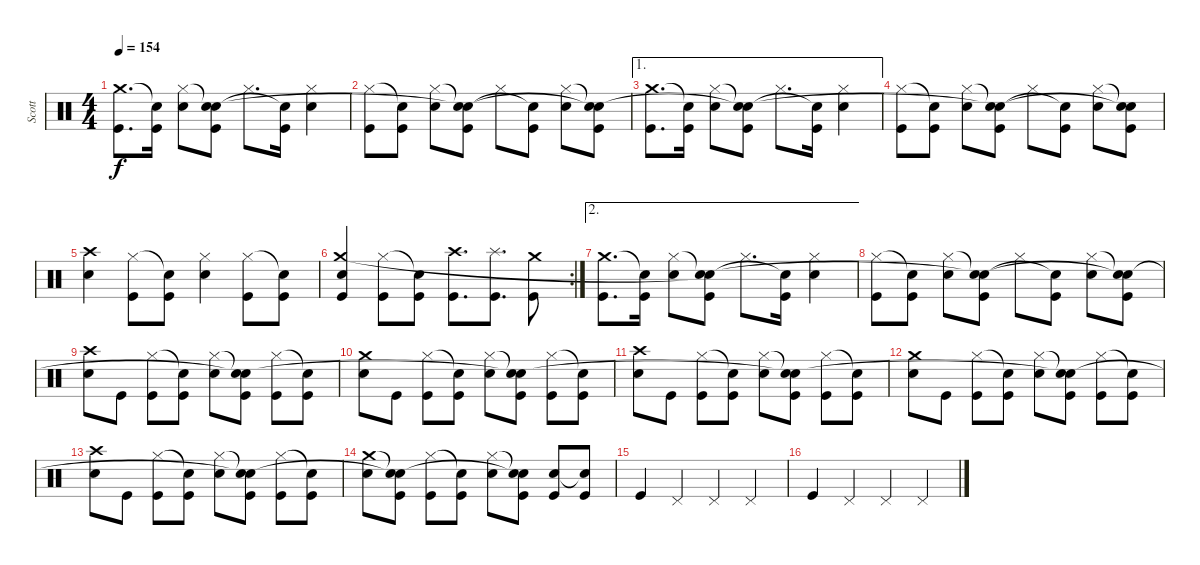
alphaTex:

\track ("Scott" "Scott") {instrument percussion}
\staff {score}
\articulation defaults
\ts (4 4)
\tempo 154
\clef neutral
\ks c
("Kick (hit)" "Crash medium (hit)").8{d dy f} ("Kick (hit)" "Snare (hit)"{t}).16 ("Snare (hit) 2" "Hi-Hat (closed)").8 ("Kick (hit)" "Snare (hit)"{t} "Snare (hit)"{t}).8 "Hi-Hat (closed)".8{d} ("Kick (hit)" "Snare (hit)"{t}).16 ("Snare (hit) 2" "Hi-Hat (closed)").4 |
("Kick (hit)" "Hi-Hat (closed)").8 ("Kick (hit)" "Snare (hit)"{t}).8 ("Snare (hit) 2" "Hi-Hat (closed)").8 ("Kick (hit)" "Snare (hit)"{t} "Snare (hit)"{t}).8 "Hi-Hat (closed)".8 ("Kick (hit)" "Snare (hit)"{t}).8 ("Snare (hit) 2" "Hi-Hat (closed)").8 ("Kick (hit)" "Snare (hit)"{t} "Snare (hit)"{t}).8 |
\ae 1
("Kick (hit)" "Crash medium (hit)").8{d} ("Kick (hit)" "Snare (hit)"{t}).16 ("Snare (hit) 2" "Hi-Hat (closed)").8 ("Kick (hit)" "Snare (hit)"{t} "Snare (hit)"{t}).8 "Hi-Hat (closed)".8{d} ("Kick (hit)" "Snare (hit)"{t}).16 ("Snare (hit) 2" "Hi-Hat (closed)").4 |
("Kick (hit)" "Hi-Hat (closed)").8 ("Kick (hit)" "Snare (hit)"{t}).8 ("Snare (hit) 2" "Hi-Hat (closed)").8 ("Kick (hit)" "Snare (hit)"{t} "Snare (hit)"{t}).8 "Hi-Hat (closed)".8 ("Kick (hit)" "Snare (hit)"{t}).8 ("Snare (hit) 2" "Hi-Hat (closed)").8 ("Kick (hit)" "Snare (hit)"{t} "Snare (hit)"{t}).8 |
("Snare (hit) 2" "Crash high (hit)").4 ("Kick (hit)" "Hi-Hat (closed)").8 ("Kick (hit)" "Snare (hit)"{t}).8 ("Snare (hit) 2" "Hi-Hat (closed)").4 ("Kick (hit)" "Hi-Hat (closed)").8 ("Kick (hit)" "Snare (hit)"{t}).8 |
\rc 2
("Kick (hit)" "Snare (hit) 2" "Crash medium (hit)").4 ("Kick (hit)" "Hi-Hat (closed)").8 ("Kick (hit)" "Snare (hit)"{t}).8 ("Kick (hit)" "Crash high (hit)").8{d} ("Kick (hit)" "Splash (hit)").8{d} ("Kick (hit)" "Crash medium (hit)").8 |
\ae 2
("Kick (hit)" "Crash medium (hit)").8{d} ("Kick (hit)" "Snare (hit)"{t}).16 ("Snare (hit) 2" "Hi-Hat (closed)").8 ("Kick (hit)" "Snare (hit)"{t} "Snare (hit)"{t}).8 "Hi-Hat (closed)".8{d} ("Kick (hit)" "Snare (hit)"{t}).16 ("Snare (hit) 2" "Hi-Hat (closed)").4 |
("Kick (hit)" "Hi-Hat (closed)").8 ("Kick (hit)" "Snare (hit)"{t}).8 ("Snare (hit) 2" "Hi-Hat (closed)").8 ("Kick (hit)" "Snare (hit)"{t} "Snare (hit)"{t}).8 "Hi-Hat (closed)".8 ("Kick (hit)" "Snare (hit)"{t}).8 ("Snare (hit) 2" "Hi-Hat (closed)").8 ("Kick (hit)" "Snare (hit)"{t} "Snare (hit)"{t}).8 |
("Snare (hit) 2" "Crash high (hit)").8 "Kick (hit)".8 ("Kick (hit)" "Hi-Hat (closed)").8 ("Kick (hit)" "Snare (hit)"{t}).8 ("Snare (hit) 2" "Hi-Hat (closed)").8 ("Kick (hit)" "Snare (hit)"{t} "Snare (hit)"{t}).8 ("Kick (hit)" "Hi-Hat (closed)").8 ("Kick (hit)" "Snare (hit)"{t}).8 |
("Snare (hit) 2" "Crash medium (hit)").8 "Kick (hit)".8 ("Kick (hit)" "Hi-Hat (closed)").8 ("Kick (hit)" "Snare (hit)"{t}).8 ("Snare (hit) 2" "Hi-Hat (closed)").8 ("Kick (hit)" "Snare (hit)"{t} "Snare (hit)"{t}).8 ("Kick (hit)" "Hi-Hat (closed)").8 ("Kick (hit)" "Snare (hit)"{t}).8 |
("Snare (hit) 2" "Crash high (hit)").8 "Kick (hit)".8 ("Kick (hit)" "Hi-Hat (closed)").8 ("Kick (hit)" "Snare (hit)"{t}).8 ("Snare (hit) 2" "Hi-Hat (closed)").8 ("Kick (hit)" "Snare (hit)"{t} "Snare (hit)"{t}).8 ("Kick (hit)" "Hi-Hat (closed)").8 ("Kick (hit)" "Snare (hit)"{t}).8 |
("Snare (hit) 2" "Crash medium (hit)").8 "Kick (hit)".8 ("Kick (hit)" "Hi-Hat (closed)").8 ("Kick (hit)" "Snare (hit)"{t}).8 ("Snare (hit) 2" "Hi-Hat (closed)").8 ("Kick (hit)" "Snare (hit)"{t} "Snare (hit)"{t}).8 ("Kick (hit)" "Hi-Hat (closed)").8 ("Kick (hit)" "Snare (hit)"{t}).8 |
("Snare (hit) 2" "Crash high (hit)").8 "Kick (hit)".8 ("Kick (hit)" "Hi-Hat (closed)").8 ("Kick (hit)" "Snare (hit)"{t}).8 ("Snare (hit) 2" "Hi-Hat (closed)").8 ("Kick (hit)" "Snare (hit)"{t} "Snare (hit)"{t}).8 ("Kick (hit)" "Hi-Hat (closed)").8 ("Kick (hit)" "Snare (hit)"{t}).8 |
("Snare (hit) 2" "Crash medium (hit)").8 ("Kick (hit)" "Snare (hit)"{t} "Snare (hit)"{t}).8 ("Kick (hit)" "Hi-Hat (closed)").8 ("Kick (hit)" "Snare (hit)"{t}).8 ("Snare (hit) 2" "Hi-Hat (closed)").8 ("Kick (hit)" "Snare (hit)"{t} "Snare (hit)"{t}).8 ("Kick (hit)" "Snare (hit) 2").8 ("Kick (hit)" "Snare (hit)"{t}).8 |
"Kick (hit)".4 "Pedal Hi-Hat (hit)".4 "Pedal Hi-Hat (hit)".4 "Pedal Hi-Hat (hit)".4 |
"Kick (hit)".4 "Pedal Hi-Hat (hit)".4 "Pedal Hi-Hat (hit)".4 "Pedal Hi-Hat (hit)".4
